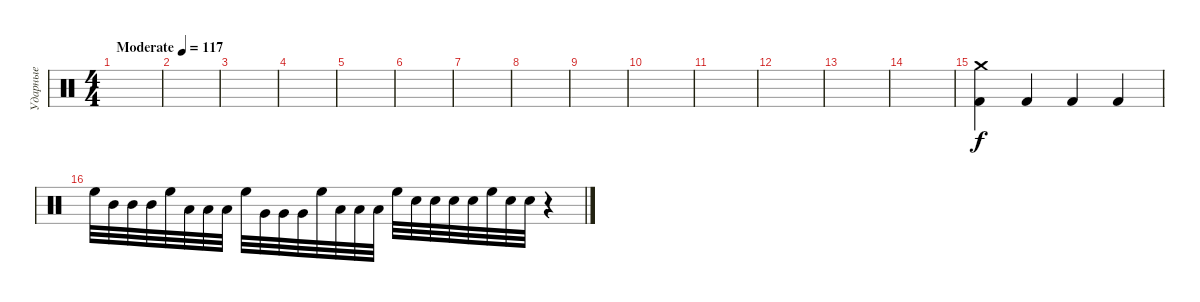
\track ("Ударные" "Ударные") {instrument percussion}
\staff {score}
\articulation defaults
\ts (4 4)
\tempo (117 "Moderate")
\clef neutral
\ks c
|
|
|
|
|
|
|
|
|
|
|
|
|
|
("Crash medium (hit)" "Kick (hit) 2").4 "Kick (hit) 2".4 "Kick (hit) 2".4 "Kick (hit) 2".4 |
"High Floor Tom (hit)".32 "Mid Tom (hit)".32 "Mid Tom (hit)".32 "Mid Tom (hit)".32 "High Floor Tom (hit)".32 "Low Tom (hit)".32 "Low Tom (hit)".32 "Low Tom (hit)".32 "High Floor Tom (hit)".32 "Very Low Tom (hit)".32 "Very Low Tom (hit)".32 "Very Low Tom (hit)".32 "High Floor Tom (hit)".32 "Low Floor Tom (hit)".32 "Low Floor Tom (hit)".32 "Low Floor Tom (hit)".32 "High Floor Tom (hit)".32 "Electric Snare (hit)".32 "Electric Snare (hit)".32 "Electric Snare (hit)".32 "Electric Snare (hit)".32 "High Floor Tom (hit)".32 "Electric Snare (hit)".32 "Electric Snare (hit)".32 r.4
